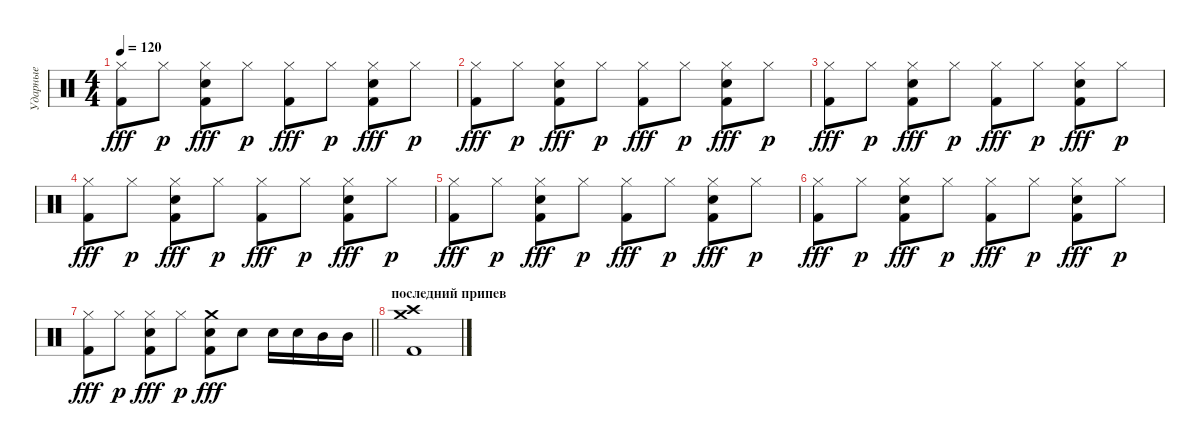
\track ("Ударные" "Ударные") {instrument percussion}
\staff {score}
\articulation defaults
\ts (4 4)
\tempo 120
\clef neutral
\ks c
("Hi-Hat (closed)" "Kick (hit) 2").8{dy fff} "Hi-Hat (closed)".8{dy p} ("Hi-Hat (closed)" "Snare (hit) 2" "Kick (hit) 2").8{dy fff} "Hi-Hat (closed)".8{dy p} ("Hi-Hat (closed)" "Kick (hit) 2").8{dy fff} "Hi-Hat (closed)".8{dy p} ("Hi-Hat (closed)" "Snare (hit) 2" "Kick (hit) 2").8{dy fff} "Hi-Hat (closed)".8{dy p} |
("Hi-Hat (closed)" "Kick (hit) 2").8{dy fff} "Hi-Hat (closed)".8{dy p} ("Hi-Hat (closed)" "Snare (hit) 2" "Kick (hit) 2").8{dy fff} "Hi-Hat (closed)".8{dy p} ("Hi-Hat (closed)" "Kick (hit) 2").8{dy fff} "Hi-Hat (closed)".8{dy p} ("Hi-Hat (closed)" "Snare (hit) 2" "Kick (hit) 2").8{dy fff} "Hi-Hat (closed)".8{dy p} |
("Hi-Hat (closed)" "Kick (hit) 2").8{dy fff} "Hi-Hat (closed)".8{dy p} ("Hi-Hat (closed)" "Snare (hit) 2" "Kick (hit) 2").8{dy fff} "Hi-Hat (closed)".8{dy p} ("Hi-Hat (closed)" "Kick (hit) 2").8{dy fff} "Hi-Hat (closed)".8{dy p} ("Hi-Hat (closed)" "Snare (hit) 2" "Kick (hit) 2").8{dy fff} "Hi-Hat (closed)".8{dy p} |
("Hi-Hat (closed)" "Kick (hit) 2").8{dy fff} "Hi-Hat (closed)".8{dy p} ("Hi-Hat (closed)" "Snare (hit) 2" "Kick (hit) 2").8{dy fff} "Hi-Hat (closed)".8{dy p} ("Hi-Hat (closed)" "Kick (hit) 2").8{dy fff} "Hi-Hat (closed)".8{dy p} ("Hi-Hat (closed)" "Snare (hit) 2" "Kick (hit) 2").8{dy fff} "Hi-Hat (closed)".8{dy p} |
("Hi-Hat (closed)" "Kick (hit) 2").8{dy fff} "Hi-Hat (closed)".8{dy p} ("Hi-Hat (closed)" "Snare (hit) 2" "Kick (hit) 2").8{dy fff} "Hi-Hat (closed)".8{dy p} ("Hi-Hat (closed)" "Kick (hit) 2").8{dy fff} "Hi-Hat (closed)".8{dy p} ("Hi-Hat (closed)" "Snare (hit) 2" "Kick (hit) 2").8{dy fff} "Hi-Hat (closed)".8{dy p} |
("Hi-Hat (closed)" "Kick (hit) 2").8{dy fff} "Hi-Hat (closed)".8{dy p} ("Hi-Hat (closed)" "Snare (hit) 2" "Kick (hit) 2").8{dy fff} "Hi-Hat (closed)".8{dy p} ("Hi-Hat (closed)" "Kick (hit) 2").8{dy fff} "Hi-Hat (closed)".8{dy p} ("Hi-Hat (closed)" "Snare (hit) 2" "Kick (hit) 2").8{dy fff} "Hi-Hat (closed)".8{dy p} |
\barLineRight lightlight
("Hi-Hat (closed)" "Kick (hit) 2").8{dy fff} "Hi-Hat (closed)".8{dy p} ("Hi-Hat (closed)" "Snare (hit) 2" "Kick (hit) 2").8{dy fff} "Hi-Hat (closed)".8{dy p} ("Crash medium (hit)" "Snare (hit) 2" "Kick (hit) 2").8{dy fff} "Snare (hit) 2".8 "Snare (hit) 2".16 "Snare (hit) 2".16 "Mid Tom (hit)".16 "Mid Tom (hit)".16 |
\section ("" "последний припев")
("Crash medium (hit)" "Crash high (hit)" "Kick (hit) 2").1
